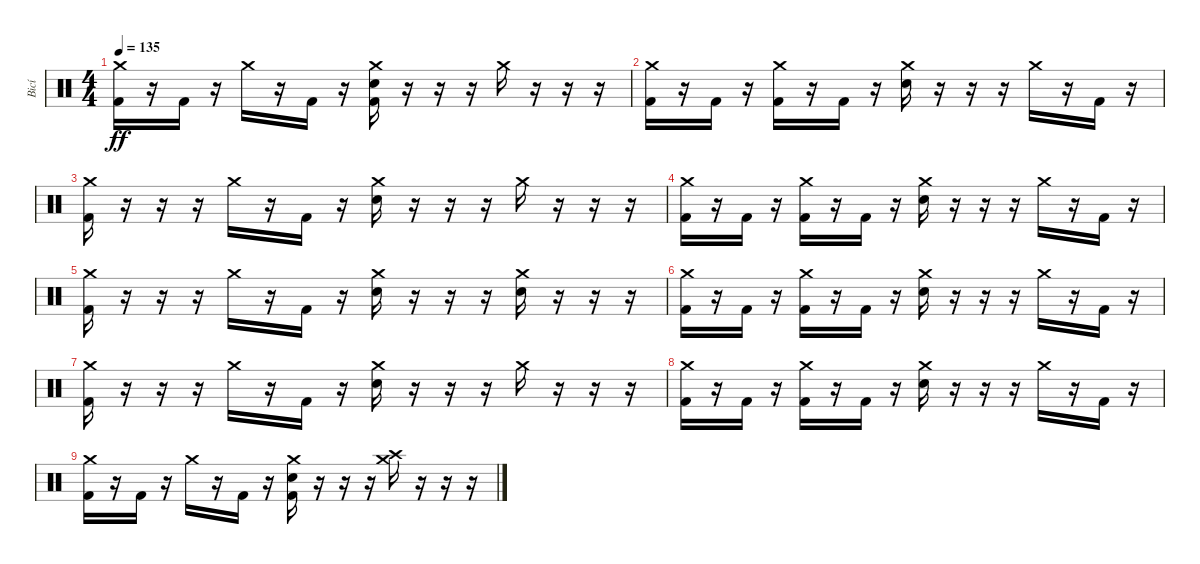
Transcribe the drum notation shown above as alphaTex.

\track ("Bicí" "Bicí") {instrument percussion}
\staff {score}
\articulation defaults
\ts (4 4)
\tempo 135
\clef neutral
\ks c
("Crash medium (hit)" "Kick (hit) 2").16{dy ff} r.16 "Kick (hit) 2".16 r.16 "Crash medium (hit)".16 r.16 "Kick (hit) 2".16 r.16 ("Crash medium (hit)" "Electric Snare (hit)" "Kick (hit) 2").16 r.16 r.16 r.16 "Crash medium (hit)".16 r.16 r.16 r.16 |
("Crash medium (hit)" "Kick (hit) 2").16 r.16 "Kick (hit) 2".16 r.16 ("Crash medium (hit)" "Kick (hit) 2").16 r.16 "Kick (hit) 2".16 r.16 ("Crash medium (hit)" "Electric Snare (hit)").16 r.16 r.16 r.16 "Crash medium (hit)".16 r.16 "Kick (hit) 2".16 r.16 |
("Crash medium (hit)" "Kick (hit) 2").16 r.16 r.16 r.16 "Crash medium (hit)".16 r.16 "Kick (hit) 2".16 r.16 ("Crash medium (hit)" "Electric Snare (hit)").16 r.16 r.16 r.16 "Crash medium (hit)".16 r.16 r.16 r.16 |
("Crash medium (hit)" "Kick (hit) 2").16 r.16 "Kick (hit) 2".16 r.16 ("Crash medium (hit)" "Kick (hit) 2").16 r.16 "Kick (hit) 2".16 r.16 ("Crash medium (hit)" "Electric Snare (hit)").16 r.16 r.16 r.16 "Crash medium (hit)".16 r.16 "Kick (hit) 2".16 r.16 |
("Crash medium (hit)" "Kick (hit) 2").16 r.16 r.16 r.16 "Crash medium (hit)".16 r.16 "Kick (hit) 2".16 r.16 ("Crash medium (hit)" "Electric Snare (hit)").16 r.16 r.16 r.16 ("Crash medium (hit)" "Electric Snare (hit)").16 r.16 r.16 r.16 |
("Crash medium (hit)" "Kick (hit) 2").16 r.16 "Kick (hit) 2".16 r.16 ("Crash medium (hit)" "Kick (hit) 2").16 r.16 "Kick (hit) 2".16 r.16 ("Crash medium (hit)" "Electric Snare (hit)").16 r.16 r.16 r.16 "Crash medium (hit)".16 r.16 "Kick (hit) 2".16 r.16 |
("Crash medium (hit)" "Kick (hit) 2").16 r.16 r.16 r.16 "Crash medium (hit)".16 r.16 "Kick (hit) 2".16 r.16 ("Crash medium (hit)" "Electric Snare (hit)").16 r.16 r.16 r.16 "Crash medium (hit)".16 r.16 r.16 r.16 |
("Crash medium (hit)" "Kick (hit) 2").16 r.16 "Kick (hit) 2".16 r.16 ("Crash medium (hit)" "Kick (hit) 2").16 r.16 "Kick (hit) 2".16 r.16 ("Crash medium (hit)" "Electric Snare (hit)").16 r.16 r.16 r.16 "Crash medium (hit)".16 r.16 "Kick (hit) 2".16 r.16 |
("Crash medium (hit)" "Kick (hit) 2").16 r.16 "Kick (hit) 2".16 r.16 "Crash medium (hit)".16 r.16 "Kick (hit) 2".16 r.16 ("Crash medium (hit)" "Electric Snare (hit)" "Kick (hit) 2").16 r.16 r.16 r.16 ("Crash medium (hit)" "Crash high (hit)").16 r.16 r.16 r.16
